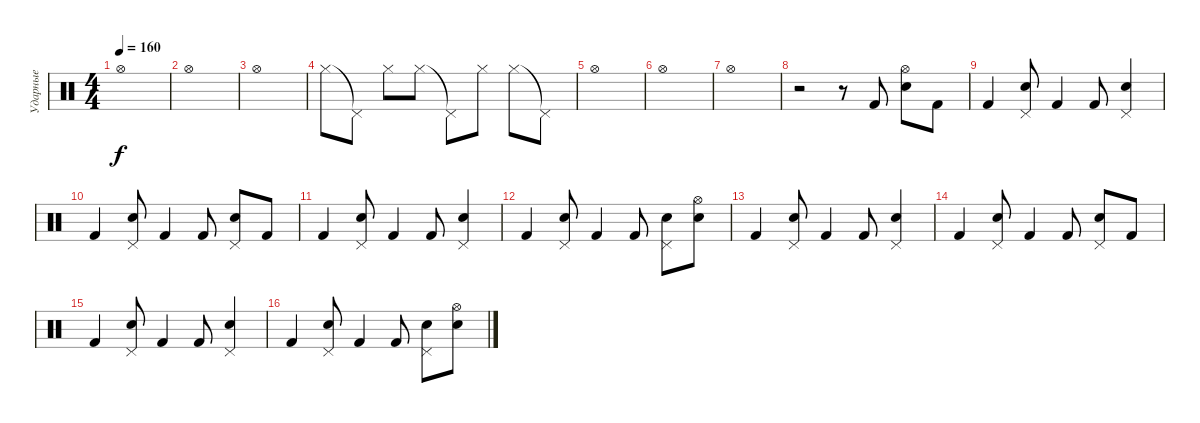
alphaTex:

\track ("Ударные" "Ударные") {instrument percussion}
\staff {score}
\articulation defaults
\ts (4 4)
\tempo 160
\clef neutral
\ks c "Hi-Hat (open)".1{dy f}
|
"Hi-Hat (open)".1 |
"Hi-Hat (open)".1 |
"Hi-Hat (closed)".8 "Pedal Hi-Hat (hit)"{t}.8 "Hi-Hat (closed)".8 "Hi-Hat (closed)".8 "Pedal Hi-Hat (hit)"{t}.8 "Hi-Hat (closed)".8 "Hi-Hat (closed)".8 "Pedal Hi-Hat (hit)"{t}.8 |
"Hi-Hat (open)".1 |
"Hi-Hat (open)".1 |
"Hi-Hat (open)".1 |
r.2 r.8 "Kick (hit) 2".8 ("Snare (hit) 2" "Hi-Hat (open)").8 "Kick (hit) 2".8 |
"Kick (hit) 2".4 ("Snare (hit) 2" "Pedal Hi-Hat (hit)").8 "Kick (hit) 2".4 "Kick (hit) 2".8 ("Snare (hit) 2" "Pedal Hi-Hat (hit)").4 |
"Kick (hit) 2".4 ("Snare (hit) 2" "Pedal Hi-Hat (hit)").8 "Kick (hit) 2".4 "Kick (hit) 2".8 ("Snare (hit) 2" "Pedal Hi-Hat (hit)").8 "Kick (hit) 2".8 |
"Kick (hit) 2".4 ("Snare (hit) 2" "Pedal Hi-Hat (hit)").8 "Kick (hit) 2".4 "Kick (hit) 2".8 ("Snare (hit) 2" "Pedal Hi-Hat (hit)").4 |
"Kick (hit) 2".4 ("Snare (hit) 2" "Pedal Hi-Hat (hit)").8 "Kick (hit) 2".4 "Kick (hit) 2".8 ("Snare (hit) 2" "Pedal Hi-Hat (hit)").8 ("Snare (hit) 2" "Hi-Hat (open)").8 |
"Kick (hit) 2".4 ("Snare (hit) 2" "Pedal Hi-Hat (hit)").8 "Kick (hit) 2".4 "Kick (hit) 2".8 ("Snare (hit) 2" "Pedal Hi-Hat (hit)").4 |
"Kick (hit) 2".4 ("Snare (hit) 2" "Pedal Hi-Hat (hit)").8 "Kick (hit) 2".4 "Kick (hit) 2".8 ("Snare (hit) 2" "Pedal Hi-Hat (hit)").8 "Kick (hit) 2".8 |
"Kick (hit) 2".4 ("Snare (hit) 2" "Pedal Hi-Hat (hit)").8 "Kick (hit) 2".4 "Kick (hit) 2".8 ("Snare (hit) 2" "Pedal Hi-Hat (hit)").4 |
"Kick (hit) 2".4 ("Snare (hit) 2" "Pedal Hi-Hat (hit)").8 "Kick (hit) 2".4 "Kick (hit) 2".8 ("Snare (hit) 2" "Pedal Hi-Hat (hit)").8 ("Snare (hit) 2" "Hi-Hat (open)").8
